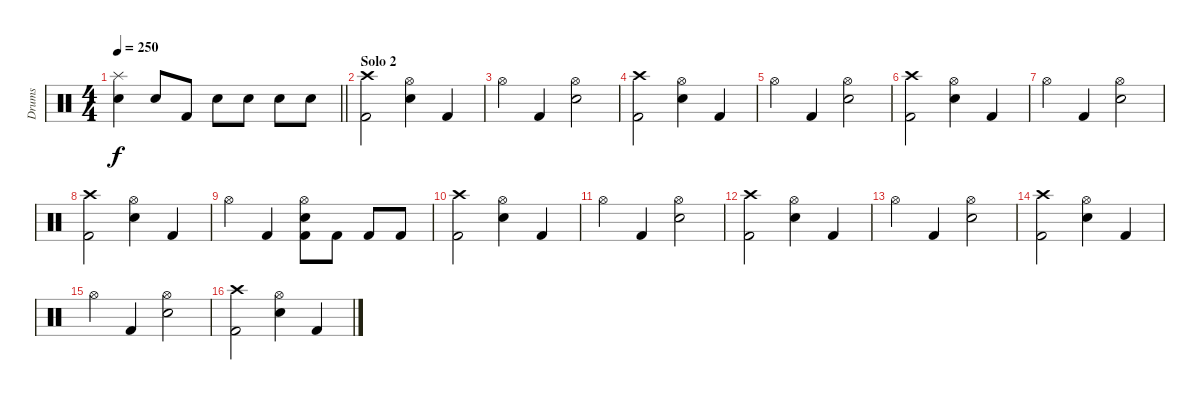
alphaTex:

\track ("Drums" "Drums") {instrument percussion}
\staff {score}
\articulation defaults
\ts (4 4)
\tempo 250
\clef neutral
\barLineRight lightlight
\ks c
("Splash (hit)" "Electric Snare (hit)").4{dy f} "Electric Snare (hit)".8 "Kick (hit) 2".8 "Electric Snare (hit)".8 "Electric Snare (hit)".8 "Electric Snare (hit)".8 "Electric Snare (hit)".8 |
\section ("" "Solo 2")
("Crash high (hit)" "Kick (hit) 2").2 ("Hi-Hat (open)" "Electric Snare (hit)").4 "Kick (hit) 2".4 |
"Hi-Hat (open)".4 "Kick (hit) 2".4 ("Hi-Hat (open)" "Electric Snare (hit)").2 |
("Crash high (hit)" "Kick (hit) 2").2 ("Hi-Hat (open)" "Electric Snare (hit)").4 "Kick (hit) 2".4 |
"Hi-Hat (open)".4 "Kick (hit) 2".4 ("Hi-Hat (open)" "Electric Snare (hit)").2 |
("Crash high (hit)" "Kick (hit) 2").2 ("Hi-Hat (open)" "Electric Snare (hit)").4 "Kick (hit) 2".4 |
"Hi-Hat (open)".4 "Kick (hit) 2".4 ("Hi-Hat (open)" "Electric Snare (hit)").2 |
("Crash high (hit)" "Kick (hit) 2").2 ("Hi-Hat (open)" "Electric Snare (hit)").4 "Kick (hit) 2".4 |
"Hi-Hat (open)".4 "Kick (hit) 2".4 ("Hi-Hat (open)" "Electric Snare (hit)" "Kick (hit) 2").8 "Kick (hit) 2".8 "Kick (hit) 2".8 "Kick (hit) 2".8 |
("Crash high (hit)" "Kick (hit) 2").2 ("Hi-Hat (open)" "Electric Snare (hit)").4 "Kick (hit) 2".4 |
"Hi-Hat (open)".4 "Kick (hit) 2".4 ("Hi-Hat (open)" "Electric Snare (hit)").2 |
("Crash high (hit)" "Kick (hit) 2").2 ("Hi-Hat (open)" "Electric Snare (hit)").4 "Kick (hit) 2".4 |
"Hi-Hat (open)".4 "Kick (hit) 2".4 ("Hi-Hat (open)" "Electric Snare (hit)").2 |
("Crash high (hit)" "Kick (hit) 2").2 ("Hi-Hat (open)" "Electric Snare (hit)").4 "Kick (hit) 2".4 |
"Hi-Hat (open)".4 "Kick (hit) 2".4 ("Hi-Hat (open)" "Electric Snare (hit)").2 |
("Crash high (hit)" "Kick (hit) 2").2 ("Hi-Hat (open)" "Electric Snare (hit)").4 "Kick (hit) 2".4
